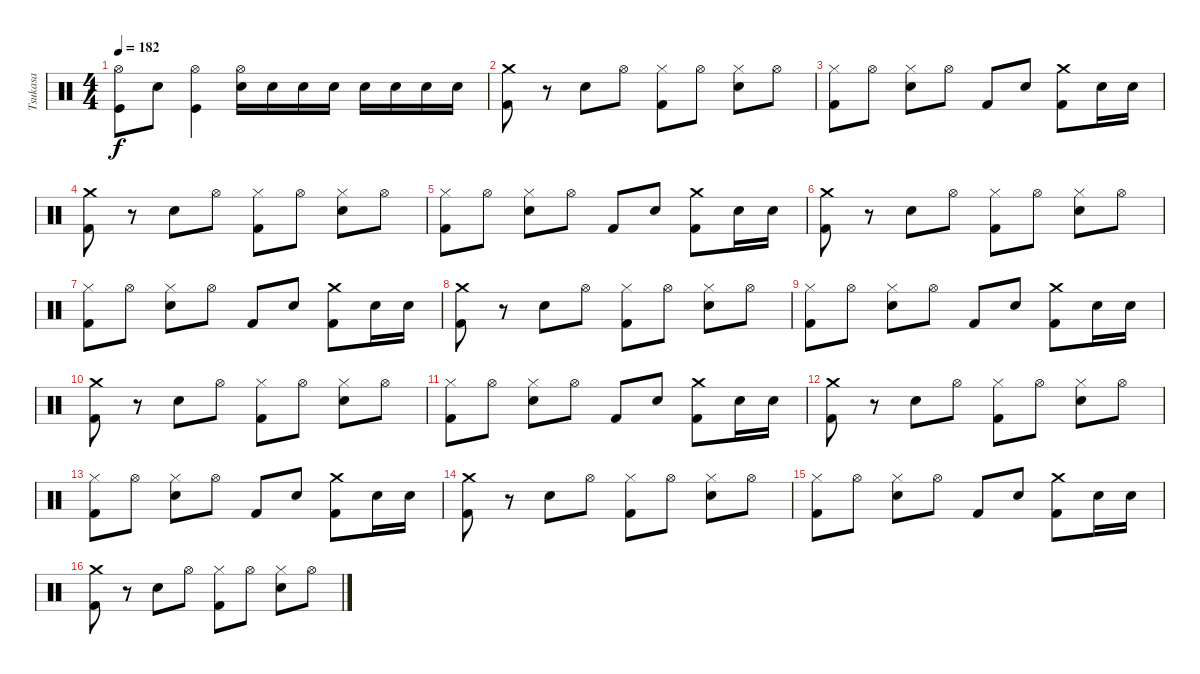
\track ("Tsukasa" "Tsukasa") {instrument percussion}
\staff {score}
\articulation defaults
\ts (4 4)
\tempo 182
\clef neutral
\ks c
("Kick (hit)" "Hi-Hat (open)").8{dy f} "Electric Snare (hit)".8 ("Kick (hit)" "Hi-Hat (open)").4 ("Electric Snare (hit)" "Hi-Hat (open)").16 "Electric Snare (hit)".16 "Electric Snare (hit)".16 "Electric Snare (hit)".16 "Electric Snare (hit)".16 "Electric Snare (hit)".16 "Electric Snare (hit)".16 "Electric Snare (hit)".16 |
("Kick (hit) 2" "Crash medium (hit)").8 r.8 "Electric Snare (hit)".8 "Hi-Hat (open)".8 ("Kick (hit) 2" "Hi-Hat (closed)").8 "Hi-Hat (open)".8 ("Electric Snare (hit)" "Hi-Hat (closed)").8 "Hi-Hat (open)".8 |
("Kick (hit) 2" "Hi-Hat (closed)").8 "Hi-Hat (open)".8 ("Electric Snare (hit)" "Hi-Hat (closed)").8 "Hi-Hat (open)".8 "Kick (hit) 2".8 "Electric Snare (hit)".8 ("Kick (hit) 2" "Crash medium (hit)").8 "Electric Snare (hit)".16 "Electric Snare (hit)".16 |
("Kick (hit) 2" "Crash medium (hit)").8 r.8 "Electric Snare (hit)".8 "Hi-Hat (open)".8 ("Kick (hit) 2" "Hi-Hat (closed)").8 "Hi-Hat (open)".8 ("Electric Snare (hit)" "Hi-Hat (closed)").8 "Hi-Hat (open)".8 |
("Kick (hit) 2" "Hi-Hat (closed)").8 "Hi-Hat (open)".8 ("Electric Snare (hit)" "Hi-Hat (closed)").8 "Hi-Hat (open)".8 "Kick (hit) 2".8 "Electric Snare (hit)".8 ("Kick (hit) 2" "Crash medium (hit)").8 "Electric Snare (hit)".16 "Electric Snare (hit)".16 |
("Kick (hit) 2" "Crash medium (hit)").8 r.8 "Electric Snare (hit)".8 "Hi-Hat (open)".8 ("Kick (hit) 2" "Hi-Hat (closed)").8 "Hi-Hat (open)".8 ("Electric Snare (hit)" "Hi-Hat (closed)").8 "Hi-Hat (open)".8 |
("Kick (hit) 2" "Hi-Hat (closed)").8 "Hi-Hat (open)".8 ("Electric Snare (hit)" "Hi-Hat (closed)").8 "Hi-Hat (open)".8 "Kick (hit) 2".8 "Electric Snare (hit)".8 ("Kick (hit) 2" "Crash medium (hit)").8 "Electric Snare (hit)".16 "Electric Snare (hit)".16 |
("Kick (hit) 2" "Crash medium (hit)").8 r.8 "Electric Snare (hit)".8 "Hi-Hat (open)".8 ("Kick (hit) 2" "Hi-Hat (closed)").8 "Hi-Hat (open)".8 ("Electric Snare (hit)" "Hi-Hat (closed)").8 "Hi-Hat (open)".8 |
("Kick (hit) 2" "Hi-Hat (closed)").8 "Hi-Hat (open)".8 ("Electric Snare (hit)" "Hi-Hat (closed)").8 "Hi-Hat (open)".8 "Kick (hit) 2".8 "Electric Snare (hit)".8 ("Kick (hit) 2" "Crash medium (hit)").8 "Electric Snare (hit)".16 "Electric Snare (hit)".16 |
("Kick (hit) 2" "Crash medium (hit)").8 r.8 "Electric Snare (hit)".8 "Hi-Hat (open)".8 ("Kick (hit) 2" "Hi-Hat (closed)").8 "Hi-Hat (open)".8 ("Electric Snare (hit)" "Hi-Hat (closed)").8 "Hi-Hat (open)".8 |
("Kick (hit) 2" "Hi-Hat (closed)").8 "Hi-Hat (open)".8 ("Electric Snare (hit)" "Hi-Hat (closed)").8 "Hi-Hat (open)".8 "Kick (hit) 2".8 "Electric Snare (hit)".8 ("Kick (hit) 2" "Crash medium (hit)").8 "Electric Snare (hit)".16 "Electric Snare (hit)".16 |
("Kick (hit) 2" "Crash medium (hit)").8 r.8 "Electric Snare (hit)".8 "Hi-Hat (open)".8 ("Kick (hit) 2" "Hi-Hat (closed)").8 "Hi-Hat (open)".8 ("Electric Snare (hit)" "Hi-Hat (closed)").8 "Hi-Hat (open)".8 |
("Kick (hit) 2" "Hi-Hat (closed)").8 "Hi-Hat (open)".8 ("Electric Snare (hit)" "Hi-Hat (closed)").8 "Hi-Hat (open)".8 "Kick (hit) 2".8 "Electric Snare (hit)".8 ("Kick (hit) 2" "Crash medium (hit)").8 "Electric Snare (hit)".16 "Electric Snare (hit)".16 |
("Kick (hit) 2" "Crash medium (hit)").8 r.8 "Electric Snare (hit)".8 "Hi-Hat (open)".8 ("Kick (hit) 2" "Hi-Hat (closed)").8 "Hi-Hat (open)".8 ("Electric Snare (hit)" "Hi-Hat (closed)").8 "Hi-Hat (open)".8 |
("Kick (hit) 2" "Hi-Hat (closed)").8 "Hi-Hat (open)".8 ("Electric Snare (hit)" "Hi-Hat (closed)").8 "Hi-Hat (open)".8 "Kick (hit) 2".8 "Electric Snare (hit)".8 ("Kick (hit) 2" "Crash medium (hit)").8 "Electric Snare (hit)".16 "Electric Snare (hit)".16 |
("Kick (hit) 2" "Crash medium (hit)").8 r.8 "Electric Snare (hit)".8 "Hi-Hat (open)".8 ("Kick (hit) 2" "Hi-Hat (closed)").8 "Hi-Hat (open)".8 ("Electric Snare (hit)" "Hi-Hat (closed)").8 "Hi-Hat (open)".8
